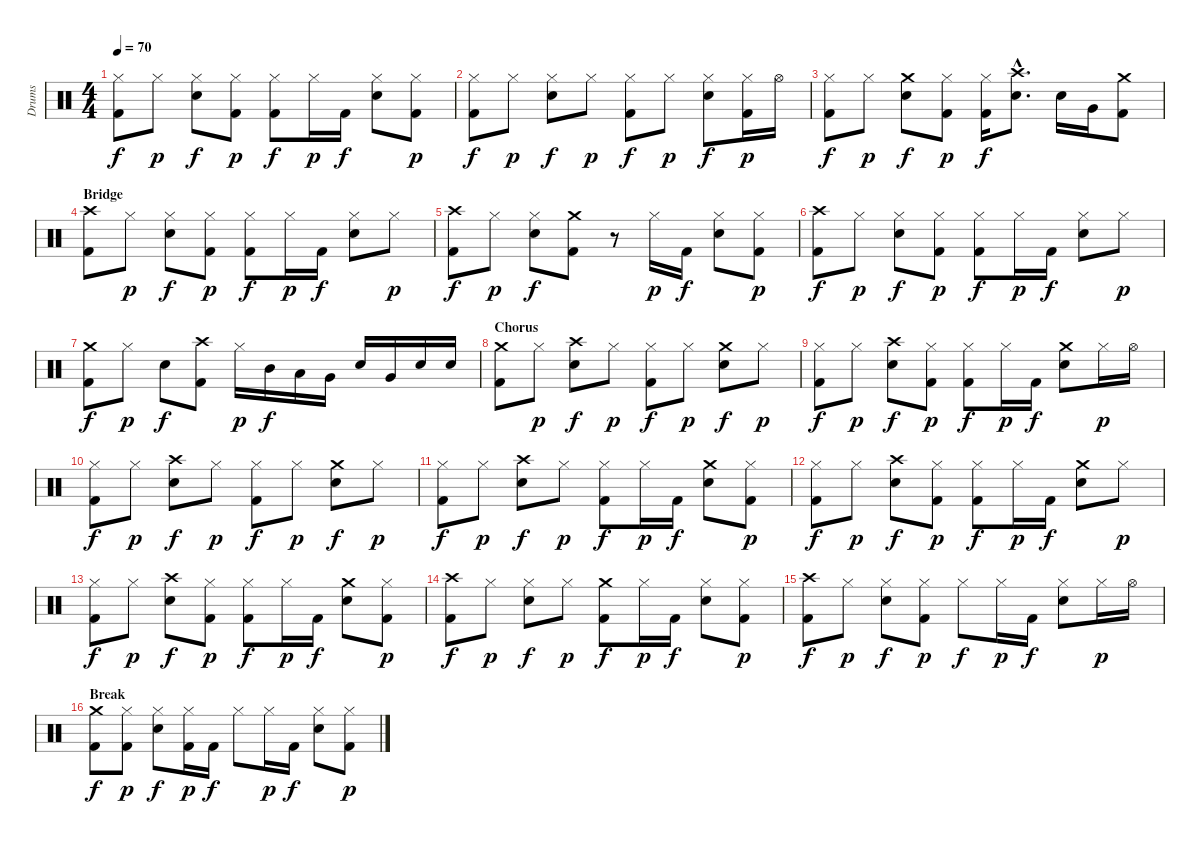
\track ("Drums" "Drums") {instrument percussion}
\staff {score}
\articulation defaults
\ts (4 4)
\tempo 70
\clef neutral
\ks c
("Hi-Hat (closed)" "Kick (hit) 2").8{dy f} "Hi-Hat (closed)".8{dy p} ("Hi-Hat (closed)" "Snare (hit) 2").8{dy f} ("Hi-Hat (closed)" "Kick (hit) 2").8{dy p} ("Hi-Hat (closed)" "Kick (hit) 2").8{dy f} "Hi-Hat (closed)".16{dy p} "Kick (hit) 2".16{dy f} ("Hi-Hat (closed)" "Snare (hit) 2").8 ("Hi-Hat (closed)" "Kick (hit) 2").8{dy p} |
("Hi-Hat (closed)" "Kick (hit) 2").8{dy f} "Hi-Hat (closed)".8{dy p} ("Hi-Hat (closed)" "Snare (hit) 2").8{dy f} "Hi-Hat (closed)".8{dy p} ("Hi-Hat (closed)" "Kick (hit) 2").8{dy f} "Hi-Hat (closed)".8{dy p} ("Hi-Hat (closed)" "Snare (hit) 2").8{dy f} ("Hi-Hat (closed)" "Kick (hit) 2").16{dy p} "Hi-Hat (open)".16 |
("Hi-Hat (closed)" "Kick (hit) 2").8{dy f} "Hi-Hat (closed)".8{dy p} ("Crash medium (hit)" "Snare (hit) 2").8{dy f} ("Hi-Hat (closed)" "Kick (hit) 2").8{dy p} ("Hi-Hat (closed)" "Kick (hit) 2").16{dy f} ("Crash high (hit)"{hac} "Snare (hit) 2"{hac}).8{d} "Snare (hit) 2".16 "Very Low Tom (hit)".16 ("Crash medium (hit)" "Kick (hit) 2").8 |
\section ("" "Bridge")
("Crash high (hit)" "Kick (hit) 2").8 "Hi-Hat (closed)".8{dy p} ("Hi-Hat (closed)" "Snare (hit) 2").8{dy f} ("Hi-Hat (closed)" "Kick (hit) 2").8{dy p} ("Hi-Hat (closed)" "Kick (hit) 2").8{dy f} "Hi-Hat (closed)".16{dy p} "Kick (hit) 2".16{dy f} ("Hi-Hat (closed)" "Snare (hit) 2").8 "Hi-Hat (closed)".8{dy p} |
("Crash high (hit)" "Kick (hit) 2").8{dy f} "Hi-Hat (closed)".8{dy p} ("Hi-Hat (closed)" "Snare (hit) 2").8{dy f} ("Crash medium (hit)" "Kick (hit) 2").8 r.8 "Hi-Hat (closed)".16{dy p} "Kick (hit) 2".16{dy f} ("Hi-Hat (closed)" "Snare (hit) 2").8 ("Hi-Hat (closed)" "Kick (hit) 2").8{dy p} |
("Crash high (hit)" "Kick (hit) 2").8{dy f} "Hi-Hat (closed)".8{dy p} ("Hi-Hat (closed)" "Snare (hit) 2").8{dy f} ("Hi-Hat (closed)" "Kick (hit) 2").8{dy p} ("Hi-Hat (closed)" "Kick (hit) 2").8{dy f} "Hi-Hat (closed)".16{dy p} "Kick (hit) 2".16{dy f} ("Hi-Hat (closed)" "Snare (hit) 2").8 "Hi-Hat (closed)".8{dy p} |
("Crash medium (hit)" "Kick (hit) 2").8{dy f} "Hi-Hat (closed)".8{dy p} "Snare (hit) 2".8{dy f} ("Crash high (hit)" "Kick (hit) 2").8 "Hi-Hat (closed)".16{dy p} "Mid Tom (hit)".16{dy f} "Low Tom (hit)".16 "Very Low Tom (hit)".16 "Snare (hit) 2".16 "Very Low Tom (hit)".16 "Snare (hit) 2".16 "Snare (hit) 2".16 |
\section ("" "Chorus")
("Crash medium (hit)" "Kick (hit) 2").8 "Hi-Hat (closed)".8{dy p} ("Crash high (hit)" "Snare (hit) 2").8{dy f} "Hi-Hat (closed)".8{dy p} ("Hi-Hat (closed)" "Kick (hit) 2").8{dy f} "Hi-Hat (closed)".8{dy p} ("Crash medium (hit)" "Snare (hit) 2").8{dy f} "Hi-Hat (closed)".8{dy p} |
("Hi-Hat (closed)" "Kick (hit) 2").8{dy f} "Hi-Hat (closed)".8{dy p} ("Crash high (hit)" "Snare (hit) 2").8{dy f} ("Hi-Hat (closed)" "Kick (hit) 2").8{dy p} ("Hi-Hat (closed)" "Kick (hit) 2").8{dy f} "Hi-Hat (closed)".16{dy p} "Kick (hit) 2".16{dy f} ("Crash medium (hit)" "Snare (hit) 2").8 "Hi-Hat (closed)".16{dy p} "Hi-Hat (open)".16 |
("Hi-Hat (closed)" "Kick (hit) 2").8{dy f} "Hi-Hat (closed)".8{dy p} ("Crash high (hit)" "Snare (hit) 2").8{dy f} "Hi-Hat (closed)".8{dy p} ("Hi-Hat (closed)" "Kick (hit) 2").8{dy f} "Hi-Hat (closed)".8{dy p} ("Crash medium (hit)" "Snare (hit) 2").8{dy f} "Hi-Hat (closed)".8{dy p} |
("Hi-Hat (closed)" "Kick (hit) 2").8{dy f} "Hi-Hat (closed)".8{dy p} ("Crash high (hit)" "Snare (hit) 2").8{dy f} "Hi-Hat (closed)".8{dy p} ("Hi-Hat (closed)" "Kick (hit) 2").8{dy f} "Hi-Hat (closed)".16{dy p} "Kick (hit) 2".16{dy f} ("Crash medium (hit)" "Snare (hit) 2").8 ("Hi-Hat (closed)" "Kick (hit) 2").8{dy p} |
("Hi-Hat (closed)" "Kick (hit) 2").8{dy f} "Hi-Hat (closed)".8{dy p} ("Crash high (hit)" "Snare (hit) 2").8{dy f} ("Hi-Hat (closed)" "Kick (hit) 2").8{dy p} ("Hi-Hat (closed)" "Kick (hit) 2").8{dy f} "Hi-Hat (closed)".16{dy p} "Kick (hit) 2".16{dy f} ("Crash medium (hit)" "Snare (hit) 2").8 "Hi-Hat (closed)".8{dy p} |
("Hi-Hat (closed)" "Kick (hit) 2").8{dy f} "Hi-Hat (closed)".8{dy p} ("Crash high (hit)" "Snare (hit) 2").8{dy f} ("Hi-Hat (closed)" "Kick (hit) 2").8{dy p} ("Hi-Hat (closed)" "Kick (hit) 2").8{dy f} "Hi-Hat (closed)".16{dy p} "Kick (hit) 2".16{dy f} ("Crash medium (hit)" "Snare (hit) 2").8 ("Hi-Hat (closed)" "Kick (hit) 2").8{dy p} |
("Crash high (hit)" "Kick (hit) 2").8{dy f} "Hi-Hat (closed)".8{dy p} ("Hi-Hat (closed)" "Snare (hit) 2").8{dy f} "Hi-Hat (closed)".8{dy p} ("Crash medium (hit)" "Kick (hit) 2").8{dy f} "Hi-Hat (closed)".16{dy p} "Kick (hit) 2".16{dy f} ("Hi-Hat (closed)" "Snare (hit) 2").8 ("Hi-Hat (closed)" "Kick (hit) 2").8{dy p} |
("Crash high (hit)" "Kick (hit) 2").8{dy f} "Hi-Hat (closed)".8{dy p} ("Hi-Hat (closed)" "Snare (hit) 2").8{dy f} ("Hi-Hat (closed)" "Kick (hit) 2").8{dy p} "Hi-Hat (closed)".8{dy f} "Hi-Hat (closed)".16{dy p} "Kick (hit) 2".16{dy f} ("Hi-Hat (closed)" "Snare (hit) 2").8 "Hi-Hat (closed)".16{dy p} "Hi-Hat (open)".16 |
\section ("" "Break")
("Crash medium (hit)" "Kick (hit) 2").8{dy f} ("Hi-Hat (closed)" "Kick (hit) 2").8{dy p} ("Hi-Hat (closed)" "Snare (hit) 2").8{dy f} ("Hi-Hat (closed)" "Kick (hit) 2").16{dy p} "Kick (hit) 2".16{dy f} "Hi-Hat (closed)".8 "Hi-Hat (closed)".16{dy p} "Kick (hit) 2".16{dy f} ("Hi-Hat (closed)" "Snare (hit) 2").8 ("Hi-Hat (closed)" "Kick (hit) 2").8{dy p}
